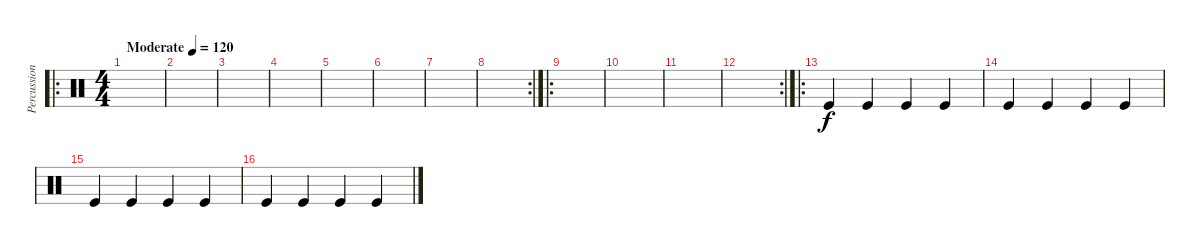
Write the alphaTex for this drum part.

\track ("Percussions" "Percussion") {instrument percussion}
\staff {score}
\articulation defaults
\ro
\ts (4 4)
\tempo (120 "Moderate")
\clef neutral
\ks c
|
|
|
|
|
|
|
\rc 2
|
\ro
|
|
|
\rc 2
|
\ro "Kick (hit)".4 "Kick (hit)".4 "Kick (hit)".4 "Kick (hit)".4
|
"Kick (hit)".4 "Kick (hit)".4 "Kick (hit)".4 "Kick (hit)".4 |
"Kick (hit)".4 "Kick (hit)".4 "Kick (hit)".4 "Kick (hit)".4 |
"Kick (hit)".4 "Kick (hit)".4 "Kick (hit)".4 "Kick (hit)".4
